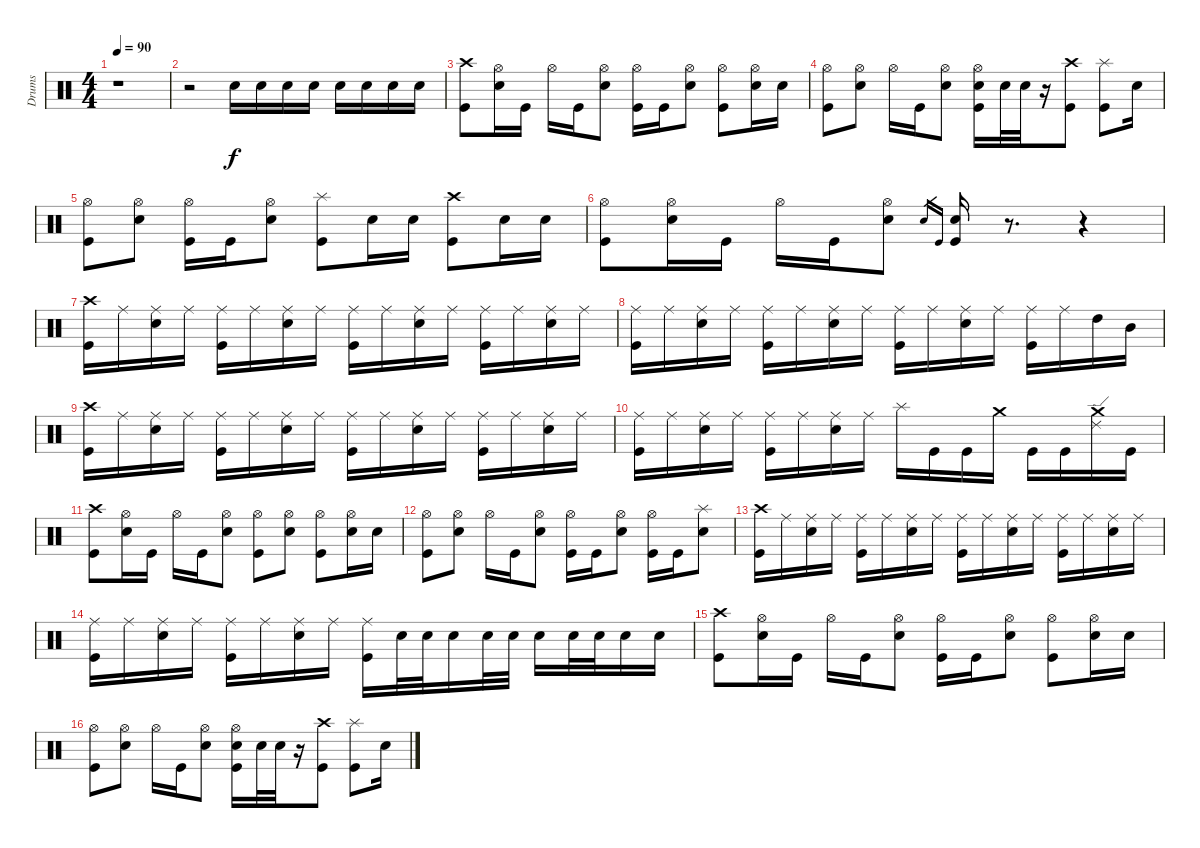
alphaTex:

\track ("Drums" "Drums") {instrument percussion}
\staff {score}
\articulation defaults
\ts (4 4)
\tempo 90
\clef neutral
\ks c
r.1{dy f} |
r.2 "Electric Snare (hit)".16 "Electric Snare (hit)".16 "Electric Snare (hit)".16 "Electric Snare (hit)".16 "Electric Snare (hit)".16 "Electric Snare (hit)".16 "Electric Snare (hit)".16 "Electric Snare (hit)".16 |
("Crash high (hit)" "Kick (hit)").8 ("Hi-Hat (open)" "Electric Snare (hit)").16 "Kick (hit)".16 "Hi-Hat (open)".16 "Kick (hit)".16 ("Hi-Hat (open)" "Electric Snare (hit)").8 ("Hi-Hat (open)" "Kick (hit)").16 "Kick (hit)".16 ("Hi-Hat (open)" "Electric Snare (hit)").8 ("Hi-Hat (open)" "Kick (hit)").8 ("Hi-Hat (open)" "Electric Snare (hit)").16 "Electric Snare (hit)".16 |
("Hi-Hat (open)" "Kick (hit)").8 ("Hi-Hat (open)" "Electric Snare (hit)").8 "Hi-Hat (open)".16 "Kick (hit)".16 ("Hi-Hat (open)" "Electric Snare (hit)").8 ("Hi-Hat (open)" "Electric Snare (hit)" "Kick (hit)").16 "Electric Snare (hit)".32 "Electric Snare (hit)".32 r.16 ("Crash high (hit)" "Kick (hit)").8 ("Splash (hit)" "Kick (hit)").8 "Electric Snare (hit)".16 |
("Hi-Hat (open)" "Kick (hit)").8 ("Hi-Hat (open)" "Electric Snare (hit)").8 ("Hi-Hat (open)" "Kick (hit)").16 "Kick (hit)".16 ("Hi-Hat (open)" "Electric Snare (hit)").8 ("Splash (hit)" "Kick (hit)").8 "Electric Snare (hit)".16 "Electric Snare (hit)".16 ("Crash high (hit)" "Kick (hit)").8 "Electric Snare (hit)".16 "Electric Snare (hit)".16 |
("Hi-Hat (open)" "Kick (hit)").8 ("Hi-Hat (open)" "Electric Snare (hit)").16 "Kick (hit)".16 "Hi-Hat (open)".16 "Kick (hit)".16 ("Hi-Hat (open)" "Electric Snare (hit)").8 "Electric Snare (hit)".16{gr} "Kick (hit)".16{gr} ("Electric Snare (hit)" "Kick (hit)").16 r.8{d} r.4 |
("Crash high (hit)" "Kick (hit)").16 "Ride (middle)".16 ("Ride (middle)" "Electric Snare (hit)").16 "Ride (middle)".16 ("Ride (middle)" "Kick (hit)").16 "Ride (middle)".16 ("Ride (middle)" "Electric Snare (hit)").16 "Ride (middle)".16 ("Ride (middle)" "Kick (hit)").16 "Ride (middle)".16 ("Ride (middle)" "Electric Snare (hit)").16 "Ride (middle)".16 ("Ride (middle)" "Kick (hit)").16 "Ride (middle)".16 ("Ride (middle)" "Electric Snare (hit)").16 "Ride (middle)".16 |
("Ride (middle)" "Kick (hit)").16 "Ride (middle)".16 ("Ride (middle)" "Electric Snare (hit)").16 "Ride (middle)".16 ("Ride (middle)" "Kick (hit)").16 "Ride (middle)".16 ("Ride (middle)" "Electric Snare (hit)").16 "Ride (middle)".16 ("Ride (middle)" "Kick (hit)").16 "Ride (middle)".16 ("Ride (middle)" "Electric Snare (hit)").16 "Ride (middle)".16 ("Ride (middle)" "Kick (hit)").16 "Ride (middle)".16 "High Tom (hit)".16 "Mid Tom (hit)".16 |
("Crash high (hit)" "Kick (hit)").16 "Ride (middle)".16 ("Ride (middle)" "Electric Snare (hit)").16 "Ride (middle)".16 ("Ride (middle)" "Kick (hit)").16 "Ride (middle)".16 ("Ride (middle)" "Electric Snare (hit)").16 "Ride (middle)".16 ("Ride (middle)" "Kick (hit)").16 "Ride (middle)".16 ("Ride (middle)" "Electric Snare (hit)").16 "Ride (middle)".16 ("Ride (middle)" "Kick (hit)").16 "Ride (middle)".16 ("Ride (middle)" "Electric Snare (hit)").16 "Ride (middle)".16 |
("Ride (middle)" "Kick (hit)").16 "Ride (middle)".16 ("Ride (middle)" "Electric Snare (hit)").16 "Ride (middle)".16 ("Ride (middle)" "Kick (hit)").16 "Ride (middle)".16 ("Ride (middle)" "Electric Snare (hit)").16 "Ride (middle)".16 "Splash (hit)".16 "Kick (hit)".16 "Kick (hit)".16 "Crash medium (hit)".16 "Kick (hit)".16 "Kick (hit)".16 ("Ride (edge) 2" "Crash medium (hit)").16 "Kick (hit)".16 |
("Crash high (hit)" "Kick (hit)").8 ("Hi-Hat (open)" "Electric Snare (hit)").16 "Kick (hit)".16 "Hi-Hat (open)".16 "Kick (hit)".16 ("Hi-Hat (open)" "Electric Snare (hit)").8 ("Hi-Hat (open)" "Kick (hit)").8 ("Hi-Hat (open)" "Electric Snare (hit)").8 ("Hi-Hat (open)" "Kick (hit)").8 ("Hi-Hat (open)" "Electric Snare (hit)").16 "Electric Snare (hit)".16 |
("Hi-Hat (open)" "Kick (hit)").8 ("Hi-Hat (open)" "Electric Snare (hit)").8 "Hi-Hat (open)".16 "Kick (hit)".16 ("Hi-Hat (open)" "Electric Snare (hit)").8 ("Hi-Hat (open)" "Kick (hit)").16 "Kick (hit)".16 ("Hi-Hat (open)" "Electric Snare (hit)").8 ("Hi-Hat (open)" "Kick (hit)").16 "Kick (hit)".16 ("Splash (hit)" "Electric Snare (hit)").8 |
("Crash high (hit)" "Kick (hit)").16 "Ride (middle)".16 ("Ride (middle)" "Electric Snare (hit)").16 "Ride (middle)".16 ("Ride (middle)" "Kick (hit)").16 "Ride (middle)".16 ("Ride (middle)" "Electric Snare (hit)").16 "Ride (middle)".16 ("Ride (middle)" "Kick (hit)").16 "Ride (middle)".16 ("Ride (middle)" "Electric Snare (hit)").16 "Ride (middle)".16 ("Ride (middle)" "Kick (hit)").16 "Ride (middle)".16 ("Ride (middle)" "Electric Snare (hit)").16 "Ride (middle)".16 |
("Ride (middle)" "Kick (hit)").16 "Ride (middle)".16 ("Ride (middle)" "Electric Snare (hit)").16 "Ride (middle)".16 ("Ride (middle)" "Kick (hit)").16 "Ride (middle)".16 ("Ride (middle)" "Electric Snare (hit)").16 "Ride (middle)".16 ("Ride (middle)" "Kick (hit)").16 "Electric Snare (hit)".32 "Electric Snare (hit)".32 "Electric Snare (hit)".16 "Electric Snare (hit)".32 "Electric Snare (hit)".32 "Electric Snare (hit)".16 "Electric Snare (hit)".32 "Electric Snare (hit)".32 "Electric Snare (hit)".16 "Electric Snare (hit)".16 |
("Crash high (hit)" "Kick (hit)").8 ("Hi-Hat (open)" "Electric Snare (hit)").16 "Kick (hit)".16 "Hi-Hat (open)".16 "Kick (hit)".16 ("Hi-Hat (open)" "Electric Snare (hit)").8 ("Hi-Hat (open)" "Kick (hit)").16 "Kick (hit)".16 ("Hi-Hat (open)" "Electric Snare (hit)").8 ("Hi-Hat (open)" "Kick (hit)").8 ("Hi-Hat (open)" "Electric Snare (hit)").16 "Electric Snare (hit)".16 |
("Hi-Hat (open)" "Kick (hit)").8 ("Hi-Hat (open)" "Electric Snare (hit)").8 "Hi-Hat (open)".16 "Kick (hit)".16 ("Hi-Hat (open)" "Electric Snare (hit)").8 ("Hi-Hat (open)" "Electric Snare (hit)" "Kick (hit)").16 "Electric Snare (hit)".32 "Electric Snare (hit)".32 r.16 ("Crash high (hit)" "Kick (hit)").8 ("Splash (hit)" "Kick (hit)").8 "Electric Snare (hit)".16
